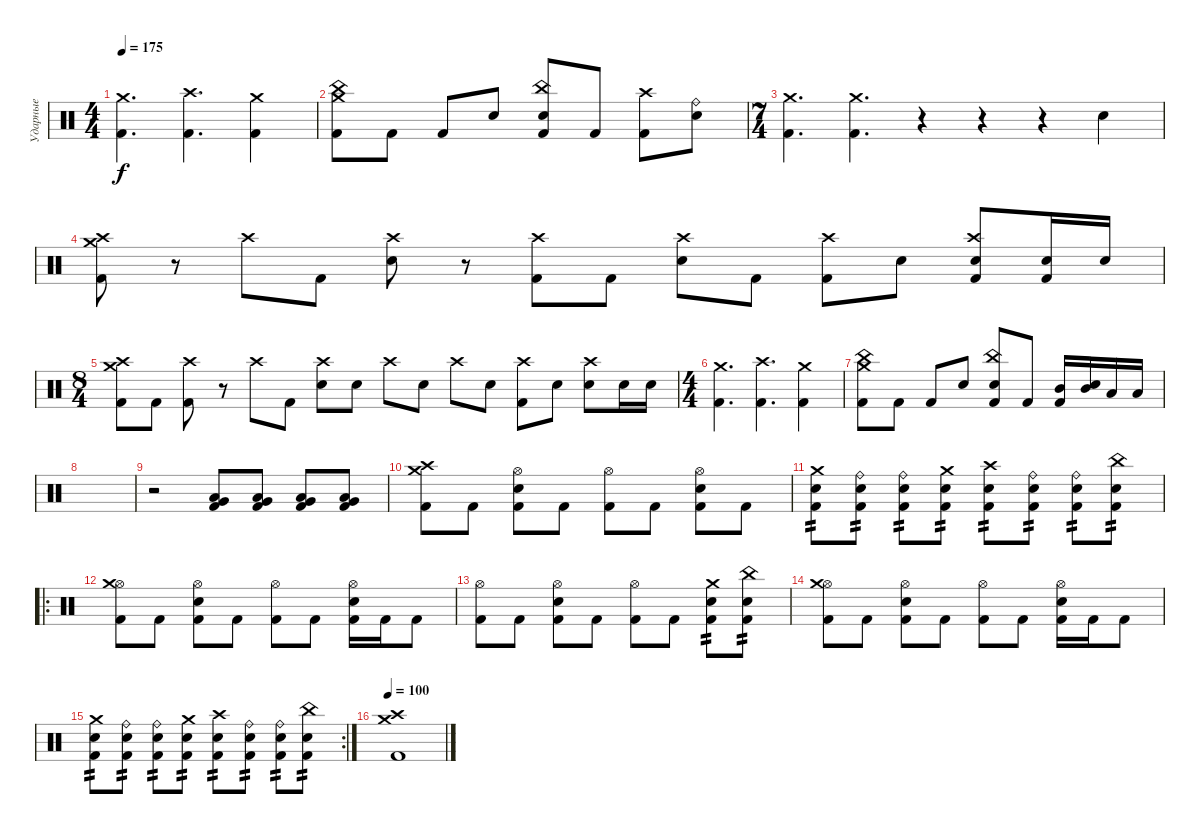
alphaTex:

\track ("Ударные" "Ударные") {instrument percussion}
\staff {score}
\articulation defaults
\ts (4 4)
\tempo 175
\clef neutral
\ks c
("Crash medium (hit)" "Kick (hit) 2").4{d dy f} ("Crash high (hit)" "Kick (hit) 2").4{d} ("Crash medium (hit)" "Kick (hit) 2").4 |
("Crash medium (hit)" "China (hit)" "Kick (hit) 2").8 "Kick (hit) 2".8 "Kick (hit) 2".8 "Snare (hit)".8 ("Snare (hit) 2" "China (hit)" "Kick (hit) 2").8 "Kick (hit) 2".8 ("Crash high (hit)" "Kick (hit) 2").8 ("Ride (bell)" "Snare (hit)").8 |
\ts (7 4)
("Crash medium (hit)" "Kick (hit) 2").4{d} ("Crash medium (hit)" "Kick (hit) 2").4{d} r.4 r.4 r.4 "Electric Snare (hit)".4 |
("Crash high (hit)" "Crash medium (hit)" "Kick (hit) 2").8 r.8 "Crash high (hit)".8 "Kick (hit) 2".8 ("Crash high (hit)" "Snare (hit) 2").8 r.8 ("Crash high (hit)" "Kick (hit) 2").8 "Kick (hit) 2".8 ("Crash high (hit)" "Snare (hit)").8 "Kick (hit) 2".8 ("Crash high (hit)" "Kick (hit) 2").8 "Snare (hit)".8 ("Crash high (hit)" "Snare (hit) 2" "Kick (hit) 2").8 ("Snare (hit) 2" "Kick (hit) 2").16 "Snare (hit) 2".16 |
\ts (8 4)
("Crash medium (hit)" "Crash high (hit)" "Kick (hit) 2").8 "Kick (hit) 2".8 ("Crash high (hit)" "Kick (hit) 2").8 r.8 "Crash high (hit)".8 "Kick (hit) 2".8 ("Crash high (hit)" "Snare (hit) 2").8 "Snare (hit)".8 "Crash high (hit)".8 "Snare (hit)".8 "Crash high (hit)".8 "Snare (hit)".8 ("Crash high (hit)" "Kick (hit) 2").8 "Snare (hit)".8 ("Crash high (hit)" "Snare (hit) 2").8 "Electric Snare (hit)".16 "Electric Snare (hit)".16 |
\ts (4 4)
("Crash medium (hit)" "Kick (hit) 2").4{d} ("Crash high (hit)" "Kick (hit) 2").4{d} ("Crash medium (hit)" "Kick (hit) 2").4 |
("Crash medium (hit)" "China (hit)" "Kick (hit) 2").8 "Kick (hit) 2".8 "Kick (hit) 2".8 "Snare (hit)".8 ("Snare (hit) 2" "China (hit)" "Kick (hit) 2").8 "Kick (hit) 2".8 ("Mid Tom (hit)" "Kick (hit) 2").16 ("Mid Tom (hit)" "Snare (hit)").16 "Low Tom (hit)".16 "Low Tom (hit)".16 |
|
r.2 ("Very Low Tom (hit)" "Low Floor Tom (hit)" "Kick (hit) 2").8 ("Very Low Tom (hit)" "Low Floor Tom (hit)" "Kick (hit) 2").8 ("Very Low Tom (hit)" "Low Floor Tom (hit)" "Kick (hit) 2").8 ("Very Low Tom (hit)" "Low Floor Tom (hit)" "Kick (hit) 2").8 |
("Crash high (hit)" "Crash medium (hit)" "Kick (hit) 2").8 "Kick (hit) 2".8 ("Snare (hit) 2" "Hi-Hat (open)" "Kick (hit) 2").8 "Kick (hit) 2".8 ("Hi-Hat (open)" "Kick (hit) 2").8 "Kick (hit) 2".8 ("Snare (hit) 2" "Hi-Hat (open)" "Kick (hit) 2").8 "Kick (hit) 2".8 |
("Crash medium (hit)" "Snare (hit) 2" "Kick (hit) 2").8{tp 2} ("Ride (bell)" "Snare (hit) 2" "Kick (hit) 2").8{tp 2} ("Ride (bell)" "Snare (hit) 2" "Kick (hit) 2").8{tp 2} ("Crash medium (hit)" "Snare (hit) 2" "Kick (hit) 2").8{tp 2} ("Crash high (hit)" "Snare (hit) 2" "Kick (hit) 2").8{tp 2} ("Ride (bell)" "Snare (hit) 2" "Kick (hit) 2").8{tp 2} ("Ride (bell)" "Snare (hit) 2" "Kick (hit) 2").8{tp 2} ("China (hit)" "Snare (hit) 2" "Kick (hit) 2").8{tp 2} |
\ro
("Hi-Hat (open)" "Crash medium (hit)" "Kick (hit) 2").8 "Kick (hit) 2".8 ("Hi-Hat (open)" "Snare (hit) 2" "Kick (hit) 2").8 "Kick (hit) 2".8 ("Hi-Hat (open)" "Kick (hit) 2").8 "Kick (hit) 2".8 ("Hi-Hat (open)" "Snare (hit) 2" "Kick (hit) 2").16 "Kick (hit) 2".16 "Kick (hit) 2".8 |
("Hi-Hat (open)" "Kick (hit) 2").8 "Kick (hit) 2".8 ("Hi-Hat (open)" "Snare (hit) 2" "Kick (hit) 2").8 "Kick (hit) 2".8 ("Hi-Hat (open)" "Kick (hit) 2").8 "Kick (hit) 2".8 ("Crash medium (hit)" "Snare (hit) 2" "Kick (hit) 2").8{tp 2} ("China (hit)" "Snare (hit) 2" "Kick (hit) 2").8{tp 2} |
("Hi-Hat (open)" "Crash medium (hit)" "Kick (hit) 2").8 "Kick (hit) 2".8 ("Hi-Hat (open)" "Snare (hit) 2" "Kick (hit) 2").8 "Kick (hit) 2".8 ("Hi-Hat (open)" "Kick (hit) 2").8 "Kick (hit) 2".8 ("Hi-Hat (open)" "Snare (hit) 2" "Kick (hit) 2").16 "Kick (hit) 2".16 "Kick (hit) 2".8 |
\rc 2
("Crash medium (hit)" "Snare (hit) 2" "Kick (hit) 2").8{tp 2} ("Ride (bell)" "Snare (hit) 2" "Kick (hit) 2").8{tp 2} ("Ride (bell)" "Snare (hit) 2" "Kick (hit) 2").8{tp 2} ("Crash medium (hit)" "Snare (hit) 2" "Kick (hit) 2").8{tp 2} ("Crash high (hit)" "Snare (hit) 2" "Kick (hit) 2").8{tp 2} ("Ride (bell)" "Snare (hit) 2" "Kick (hit) 2").8{tp 2} ("Ride (bell)" "Snare (hit) 2" "Kick (hit) 2").8{tp 2} ("China (hit)" "Snare (hit) 2" "Kick (hit) 2").8{tp 2} |
\tempo 100
("Crash high (hit)" "Crash medium (hit)" "Kick (hit) 2").1
